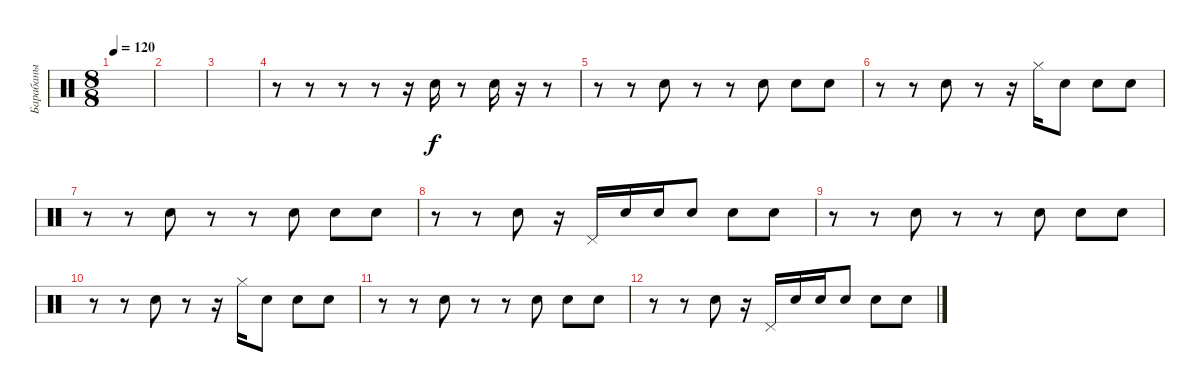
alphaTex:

\track ("Барабаны" "Барабаны") {instrument percussion}
\staff {score}
\articulation defaults
\ts (8 8)
\tempo 120
\clef neutral
\ks c
|
|
|
r.8 r.8 r.8 r.8 r.16 "Electric Snare (hit)".16 r.8 "Electric Snare (hit)".16 r.16 r.8 |
r.8 r.8 "Electric Snare (hit)".8 r.8 r.8 "Electric Snare (hit)".8 "Hand Clap (hit)".8 "Electric Snare (hit)".8 |
r.8 r.8 "Electric Snare (hit)".8 r.8 r.16 "Hi-Hat (closed)".16 "Electric Snare (hit)".8 "Hand Clap (hit)".8 "Electric Snare (hit)".8 |
r.8 r.8 "Electric Snare (hit)".8 r.8 r.8 "Electric Snare (hit)".8 "Hand Clap (hit)".8 "Electric Snare (hit)".8 |
r.8 r.8 "Electric Snare (hit)".8 r.16 "Pedal Hi-Hat (hit)".16 "Electric Snare (hit)".16 "Electric Snare (hit)".16 "Electric Snare (hit)".8 "Hand Clap (hit)".8 "Electric Snare (hit)".8 |
r.8 r.8 "Electric Snare (hit)".8 r.8 r.8 "Electric Snare (hit)".8 "Hand Clap (hit)".8 "Electric Snare (hit)".8 |
r.8 r.8 "Electric Snare (hit)".8 r.8 r.16 "Hi-Hat (closed)".16 "Electric Snare (hit)".8 "Hand Clap (hit)".8 "Electric Snare (hit)".8 |
r.8 r.8 "Electric Snare (hit)".8 r.8 r.8 "Electric Snare (hit)".8 "Hand Clap (hit)".8 "Electric Snare (hit)".8 |
r.8 r.8 "Electric Snare (hit)".8 r.16 "Pedal Hi-Hat (hit)".16 "Electric Snare (hit)".16 "Electric Snare (hit)".16 "Electric Snare (hit)".8 "Hand Clap (hit)".8 "Electric Snare (hit)".8
